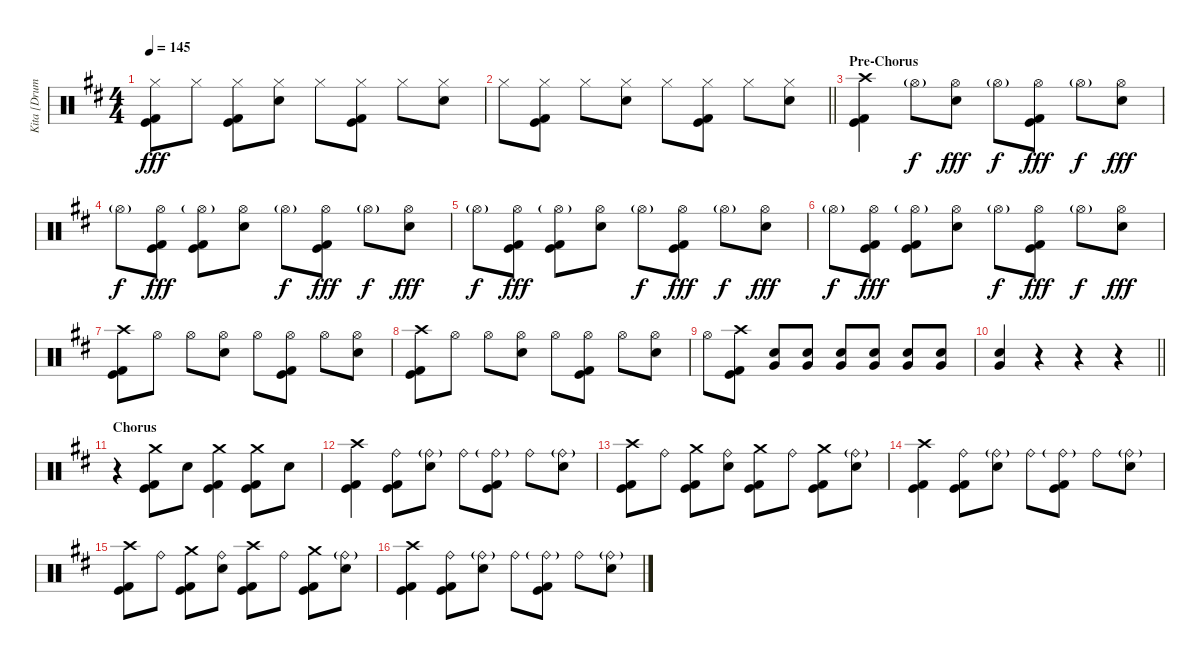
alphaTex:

\track ("Kita [Drums]" "Kita [Drum") {instrument percussion}
\staff {score}
\articulation defaults
\ts (4 4)
\tempo 145
\clef neutral
\ks d
("Hi-Hat (closed)" "Kick (hit)" "Kick (hit) 2").8{dy fff} "Hi-Hat (closed)".8 ("Hi-Hat (closed)" "Kick (hit)" "Kick (hit) 2").8 ("Hi-Hat (closed)" "Electric Snare (hit)").8 "Hi-Hat (closed)".8 ("Hi-Hat (closed)" "Kick (hit)" "Kick (hit) 2").8 "Hi-Hat (closed)".8 ("Hi-Hat (closed)" "Electric Snare (hit)").8 |
\barLineRight lightlight "Hi-Hat (closed)".8
("Hi-Hat (closed)" "Kick (hit)" "Kick (hit) 2").8 "Hi-Hat (closed)".8 ("Hi-Hat (closed)" "Electric Snare (hit)").8 "Hi-Hat (closed)".8 ("Hi-Hat (closed)" "Kick (hit)" "Kick (hit) 2").8 "Hi-Hat (closed)".8 ("Hi-Hat (closed)" "Electric Snare (hit)").8 |
\section ("" "Pre-Chorus")
("Crash high (hit)" "Kick (hit)" "Kick (hit) 2").4 "Hi-Hat (open)"{g}.8{dy f} ("Hi-Hat (open)" "Electric Snare (hit)").8{dy fff} "Hi-Hat (open)"{g}.8{dy f} ("Hi-Hat (open)" "Kick (hit)" "Kick (hit) 2").8{dy fff} "Hi-Hat (open)"{g}.8{dy f} ("Hi-Hat (open)" "Electric Snare (hit)").8{dy fff} |
"Hi-Hat (open)"{g}.8{dy f} ("Hi-Hat (open)" "Kick (hit)" "Kick (hit) 2").8{dy fff} ("Hi-Hat (open)"{g} "Kick (hit)" "Kick (hit) 2").8 ("Hi-Hat (open)" "Electric Snare (hit)").8 "Hi-Hat (open)"{g}.8{dy f} ("Hi-Hat (open)" "Kick (hit)" "Kick (hit) 2").8{dy fff} "Hi-Hat (open)"{g}.8{dy f} ("Hi-Hat (open)" "Electric Snare (hit)").8{dy fff} |
"Hi-Hat (open)"{g}.8{dy f} ("Hi-Hat (open)" "Kick (hit)" "Kick (hit) 2").8{dy fff} ("Hi-Hat (open)"{g} "Kick (hit)" "Kick (hit) 2").8 ("Hi-Hat (open)" "Electric Snare (hit)").8 "Hi-Hat (open)"{g}.8{dy f} ("Hi-Hat (open)" "Kick (hit)" "Kick (hit) 2").8{dy fff} "Hi-Hat (open)"{g}.8{dy f} ("Hi-Hat (open)" "Electric Snare (hit)").8{dy fff} |
"Hi-Hat (open)"{g}.8{dy f} ("Hi-Hat (open)" "Kick (hit)" "Kick (hit) 2").8{dy fff} ("Hi-Hat (open)"{g} "Kick (hit)" "Kick (hit) 2").8 ("Hi-Hat (open)" "Electric Snare (hit)").8 "Hi-Hat (open)"{g}.8{dy f} ("Hi-Hat (open)" "Kick (hit)" "Kick (hit) 2").8{dy fff} "Hi-Hat (open)"{g}.8{dy f} ("Hi-Hat (open)" "Electric Snare (hit)").8{dy fff} |
("Crash high (hit)" "Kick (hit)" "Kick (hit) 2").8 "Hi-Hat (open)".8 "Hi-Hat (open)".8 ("Hi-Hat (open)" "Electric Snare (hit)").8 "Hi-Hat (open)".8 ("Hi-Hat (open)" "Kick (hit)" "Kick (hit) 2").8 "Hi-Hat (open)".8 ("Hi-Hat (open)" "Electric Snare (hit)").8 |
("Crash high (hit)" "Kick (hit)" "Kick (hit) 2").8 "Hi-Hat (open)".8 "Hi-Hat (open)".8 ("Hi-Hat (open)" "Electric Snare (hit)").8 "Hi-Hat (open)".8 ("Hi-Hat (open)" "Kick (hit)" "Kick (hit) 2").8 "Hi-Hat (open)".8 ("Hi-Hat (open)" "Electric Snare (hit)").8 |
"Hi-Hat (open)".8 ("Crash high (hit)" "Kick (hit)" "Kick (hit) 2").8 ("Electric Snare (hit)" "Very Low Tom (hit)").8 ("Electric Snare (hit)" "Very Low Tom (hit)").8 ("Electric Snare (hit)" "Very Low Tom (hit)").8 ("Electric Snare (hit)" "Very Low Tom (hit)").8 ("Electric Snare (hit)" "Very Low Tom (hit)").8 ("Electric Snare (hit)" "Very Low Tom (hit)").8 |
\barLineRight lightlight
("Electric Snare (hit)" "Very Low Tom (hit)").4 r.4 r.4 r.4 |
\section ("" "Chorus")
r.4 ("Crash medium (hit)" "Kick (hit)" "Kick (hit) 2").8 "Electric Snare (hit)".8 ("Crash medium (hit)" "Kick (hit)" "Kick (hit) 2").4 ("Crash medium (hit)" "Kick (hit)" "Kick (hit) 2").8 "Electric Snare (hit)".8 |
("Crash high (hit)" "Kick (hit)" "Kick (hit) 2").4 ("Ride (bell)" "Kick (hit)" "Kick (hit) 2").8 ("Ride (bell)"{g} "Electric Snare (hit)").8 "Ride (bell)".8 ("Ride (bell)"{g} "Kick (hit)" "Kick (hit) 2").8 "Ride (bell)".8 ("Ride (bell)"{g} "Electric Snare (hit)").8 |
("Crash high (hit)" "Kick (hit)" "Kick (hit) 2").8 "Ride (bell)".8 ("Crash medium (hit)" "Kick (hit)" "Kick (hit) 2").8 ("Ride (bell)" "Electric Snare (hit)").8 ("Crash medium (hit)" "Kick (hit)" "Kick (hit) 2").8 "Ride (bell)".8 ("Crash medium (hit)" "Kick (hit)" "Kick (hit) 2").8 ("Ride (bell)"{g} "Electric Snare (hit)").8 |
("Crash high (hit)" "Kick (hit)" "Kick (hit) 2").4 ("Ride (bell)" "Kick (hit)" "Kick (hit) 2").8 ("Ride (bell)"{g} "Electric Snare (hit)").8 "Ride (bell)".8 ("Ride (bell)"{g} "Kick (hit)" "Kick (hit) 2").8 "Ride (bell)".8 ("Ride (bell)"{g} "Electric Snare (hit)").8 |
("Crash high (hit)" "Kick (hit)" "Kick (hit) 2").8 "Ride (bell)".8 ("Crash medium (hit)" "Kick (hit)" "Kick (hit) 2").8 ("Ride (bell)" "Electric Snare (hit)").8 ("Crash high (hit)" "Kick (hit)" "Kick (hit) 2").8 "Ride (bell)".8 ("Crash medium (hit)" "Kick (hit)" "Kick (hit) 2").8 ("Ride (bell)"{g} "Electric Snare (hit)").8 |
("Crash high (hit)" "Kick (hit)" "Kick (hit) 2").4 ("Ride (bell)" "Kick (hit)" "Kick (hit) 2").8 ("Ride (bell)"{g} "Electric Snare (hit)").8 "Ride (bell)".8 ("Ride (bell)"{g} "Kick (hit)" "Kick (hit) 2").8 "Ride (bell)".8 ("Ride (bell)"{g} "Electric Snare (hit)").8
